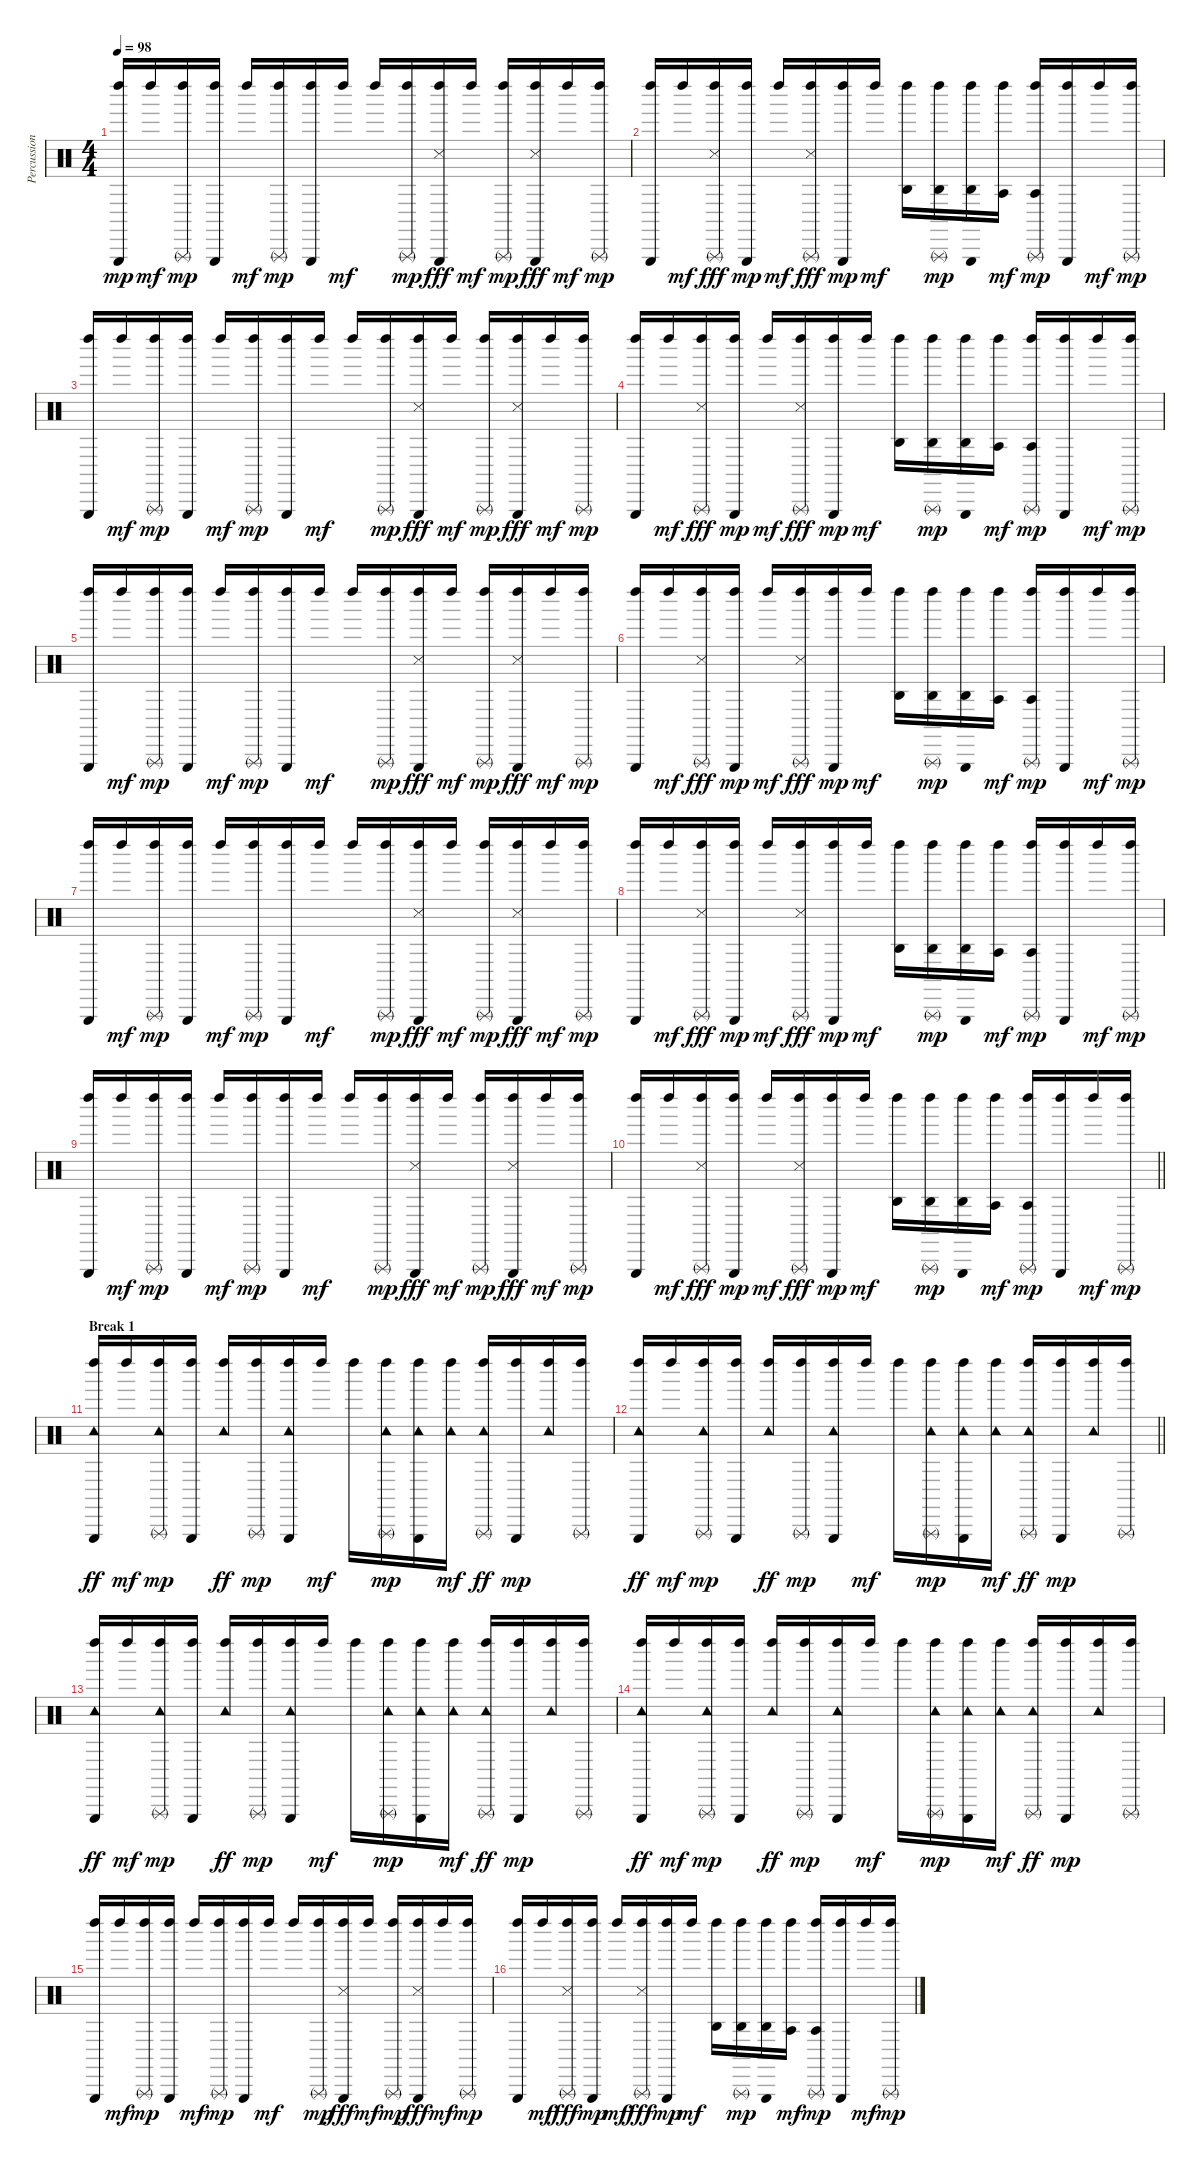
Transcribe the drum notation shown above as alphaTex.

\track ("Percussions (Dr-0)" "Percussion") {instrument percussion}
\staff {score}
\articulation defaults
\ts (4 4)
\tempo 98
\clef neutral
\ks c
("Left Maraca (hit)" "Triangle (hit)").16{dy mp} "Left Maraca (hit)".16{dy mf} ("Left Maraca (hit)" "Triangle (rnute)").16{dy mp} ("Left Maraca (hit)" "Triangle (hit)").16 "Left Maraca (hit)".16{dy mf} ("Left Maraca (hit)" "Triangle (rnute)").16{dy mp} ("Left Maraca (hit)" "Triangle (hit)").16 "Left Maraca (hit)".16{dy mf} "Left Maraca (hit)".16 ("Left Maraca (hit)" "Triangle (rnute)").16{dy mp} ("Left Maraca (hit)" "Triangle (hit)" "Snare (side stick) 3").16{dy fff} "Left Maraca (hit)".16{dy mf} ("Left Maraca (hit)" "Triangle (rnute)").16{dy mp} ("Left Maraca (hit)" "Triangle (hit)" "Snare (side stick) 3").16{dy fff} "Left Maraca (hit)".16{dy mf} ("Left Maraca (hit)" "Triangle (rnute)").16{dy mp} |
("Left Maraca (hit)" "Triangle (hit)").16 "Left Maraca (hit)".16{dy mf} ("Left Maraca (hit)" "Triangle (rnute)" "Snare (side stick) 3").16{dy fff} ("Left Maraca (hit)" "Triangle (hit)").16{dy mp} "Left Maraca (hit)".16{dy mf} ("Left Maraca (hit)" "Triangle (rnute)" "Snare (side stick) 3").16{dy fff} ("Left Maraca (hit)" "Triangle (hit)").16{dy mp} "Left Maraca (hit)".16{dy mf} ("Left Maraca (hit)" "Agogo high (hit)").16 ("Left Maraca (hit)" "Triangle (rnute)" "Agogo high (hit)").16{dy mp} ("Left Maraca (hit)" "Triangle (hit)" "Agogo high (hit)").16 ("Left Maraca (hit)" "Agogo tow (hit)").16{dy mf} ("Left Maraca (hit)" "Triangle (rnute)" "Agogo tow (hit)").16{dy mp} ("Left Maraca (hit)" "Triangle (hit)").16 "Left Maraca (hit)".16{dy mf} ("Left Maraca (hit)" "Triangle (rnute)").16{dy mp} |
("Left Maraca (hit)" "Triangle (hit)").16 "Left Maraca (hit)".16{dy mf} ("Left Maraca (hit)" "Triangle (rnute)").16{dy mp} ("Left Maraca (hit)" "Triangle (hit)").16 "Left Maraca (hit)".16{dy mf} ("Left Maraca (hit)" "Triangle (rnute)").16{dy mp} ("Left Maraca (hit)" "Triangle (hit)").16 "Left Maraca (hit)".16{dy mf} "Left Maraca (hit)".16 ("Left Maraca (hit)" "Triangle (rnute)").16{dy mp} ("Left Maraca (hit)" "Triangle (hit)" "Snare (side stick) 3").16{dy fff} "Left Maraca (hit)".16{dy mf} ("Left Maraca (hit)" "Triangle (rnute)").16{dy mp} ("Left Maraca (hit)" "Triangle (hit)" "Snare (side stick) 3").16{dy fff} "Left Maraca (hit)".16{dy mf} ("Left Maraca (hit)" "Triangle (rnute)").16{dy mp} |
("Left Maraca (hit)" "Triangle (hit)").16 "Left Maraca (hit)".16{dy mf} ("Left Maraca (hit)" "Triangle (rnute)" "Snare (side stick) 3").16{dy fff} ("Left Maraca (hit)" "Triangle (hit)").16{dy mp} "Left Maraca (hit)".16{dy mf} ("Left Maraca (hit)" "Triangle (rnute)" "Snare (side stick) 3").16{dy fff} ("Left Maraca (hit)" "Triangle (hit)").16{dy mp} "Left Maraca (hit)".16{dy mf} ("Left Maraca (hit)" "Agogo high (hit)").16 ("Left Maraca (hit)" "Triangle (rnute)" "Agogo high (hit)").16{dy mp} ("Left Maraca (hit)" "Triangle (hit)" "Agogo high (hit)").16 ("Left Maraca (hit)" "Agogo tow (hit)").16{dy mf} ("Left Maraca (hit)" "Triangle (rnute)" "Agogo tow (hit)").16{dy mp} ("Left Maraca (hit)" "Triangle (hit)").16 "Left Maraca (hit)".16{dy mf} ("Left Maraca (hit)" "Triangle (rnute)").16{dy mp} |
("Left Maraca (hit)" "Triangle (hit)").16 "Left Maraca (hit)".16{dy mf} ("Left Maraca (hit)" "Triangle (rnute)").16{dy mp} ("Left Maraca (hit)" "Triangle (hit)").16 "Left Maraca (hit)".16{dy mf} ("Left Maraca (hit)" "Triangle (rnute)").16{dy mp} ("Left Maraca (hit)" "Triangle (hit)").16 "Left Maraca (hit)".16{dy mf} "Left Maraca (hit)".16 ("Left Maraca (hit)" "Triangle (rnute)").16{dy mp} ("Left Maraca (hit)" "Triangle (hit)" "Snare (side stick) 3").16{dy fff} "Left Maraca (hit)".16{dy mf} ("Left Maraca (hit)" "Triangle (rnute)").16{dy mp} ("Left Maraca (hit)" "Triangle (hit)" "Snare (side stick) 3").16{dy fff} "Left Maraca (hit)".16{dy mf} ("Left Maraca (hit)" "Triangle (rnute)").16{dy mp} |
("Left Maraca (hit)" "Triangle (hit)").16 "Left Maraca (hit)".16{dy mf} ("Left Maraca (hit)" "Triangle (rnute)" "Snare (side stick) 3").16{dy fff} ("Left Maraca (hit)" "Triangle (hit)").16{dy mp} "Left Maraca (hit)".16{dy mf} ("Left Maraca (hit)" "Triangle (rnute)" "Snare (side stick) 3").16{dy fff} ("Left Maraca (hit)" "Triangle (hit)").16{dy mp} "Left Maraca (hit)".16{dy mf} ("Left Maraca (hit)" "Agogo high (hit)").16 ("Left Maraca (hit)" "Triangle (rnute)" "Agogo high (hit)").16{dy mp} ("Left Maraca (hit)" "Triangle (hit)" "Agogo high (hit)").16 ("Left Maraca (hit)" "Agogo tow (hit)").16{dy mf} ("Left Maraca (hit)" "Triangle (rnute)" "Agogo tow (hit)").16{dy mp} ("Left Maraca (hit)" "Triangle (hit)").16 "Left Maraca (hit)".16{dy mf} ("Left Maraca (hit)" "Triangle (rnute)").16{dy mp} |
("Left Maraca (hit)" "Triangle (hit)").16 "Left Maraca (hit)".16{dy mf} ("Left Maraca (hit)" "Triangle (rnute)").16{dy mp} ("Left Maraca (hit)" "Triangle (hit)").16 "Left Maraca (hit)".16{dy mf} ("Left Maraca (hit)" "Triangle (rnute)").16{dy mp} ("Left Maraca (hit)" "Triangle (hit)").16 "Left Maraca (hit)".16{dy mf} "Left Maraca (hit)".16 ("Left Maraca (hit)" "Triangle (rnute)").16{dy mp} ("Left Maraca (hit)" "Triangle (hit)" "Snare (side stick) 3").16{dy fff} "Left Maraca (hit)".16{dy mf} ("Left Maraca (hit)" "Triangle (rnute)").16{dy mp} ("Left Maraca (hit)" "Triangle (hit)" "Snare (side stick) 3").16{dy fff} "Left Maraca (hit)".16{dy mf} ("Left Maraca (hit)" "Triangle (rnute)").16{dy mp} |
("Left Maraca (hit)" "Triangle (hit)").16 "Left Maraca (hit)".16{dy mf} ("Left Maraca (hit)" "Triangle (rnute)" "Snare (side stick) 3").16{dy fff} ("Left Maraca (hit)" "Triangle (hit)").16{dy mp} "Left Maraca (hit)".16{dy mf} ("Left Maraca (hit)" "Triangle (rnute)" "Snare (side stick) 3").16{dy fff} ("Left Maraca (hit)" "Triangle (hit)").16{dy mp} "Left Maraca (hit)".16{dy mf} ("Left Maraca (hit)" "Agogo high (hit)").16 ("Left Maraca (hit)" "Triangle (rnute)" "Agogo high (hit)").16{dy mp} ("Left Maraca (hit)" "Triangle (hit)" "Agogo high (hit)").16 ("Left Maraca (hit)" "Agogo tow (hit)").16{dy mf} ("Left Maraca (hit)" "Triangle (rnute)" "Agogo tow (hit)").16{dy mp} ("Left Maraca (hit)" "Triangle (hit)").16 "Left Maraca (hit)".16{dy mf} ("Left Maraca (hit)" "Triangle (rnute)").16{dy mp} |
("Left Maraca (hit)" "Triangle (hit)").16 "Left Maraca (hit)".16{dy mf} ("Left Maraca (hit)" "Triangle (rnute)").16{dy mp} ("Left Maraca (hit)" "Triangle (hit)").16 "Left Maraca (hit)".16{dy mf} ("Left Maraca (hit)" "Triangle (rnute)").16{dy mp} ("Left Maraca (hit)" "Triangle (hit)").16 "Left Maraca (hit)".16{dy mf} "Left Maraca (hit)".16 ("Left Maraca (hit)" "Triangle (rnute)").16{dy mp} ("Left Maraca (hit)" "Triangle (hit)" "Snare (side stick) 3").16{dy fff} "Left Maraca (hit)".16{dy mf} ("Left Maraca (hit)" "Triangle (rnute)").16{dy mp} ("Left Maraca (hit)" "Triangle (hit)" "Snare (side stick) 3").16{dy fff} "Left Maraca (hit)".16{dy mf} ("Left Maraca (hit)" "Triangle (rnute)").16{dy mp} |
\barLineRight lightlight
("Left Maraca (hit)" "Triangle (hit)").16 "Left Maraca (hit)".16{dy mf} ("Left Maraca (hit)" "Triangle (rnute)" "Snare (side stick) 3").16{dy fff} ("Left Maraca (hit)" "Triangle (hit)").16{dy mp} "Left Maraca (hit)".16{dy mf} ("Left Maraca (hit)" "Triangle (rnute)" "Snare (side stick) 3").16{dy fff} ("Left Maraca (hit)" "Triangle (hit)").16{dy mp} "Left Maraca (hit)".16{dy mf} ("Left Maraca (hit)" "Agogo high (hit)").16 ("Left Maraca (hit)" "Triangle (rnute)" "Agogo high (hit)").16{dy mp} ("Left Maraca (hit)" "Triangle (hit)" "Agogo high (hit)").16 ("Left Maraca (hit)" "Agogo tow (hit)").16{dy mf} ("Left Maraca (hit)" "Triangle (rnute)" "Agogo tow (hit)").16{dy mp} ("Left Maraca (hit)" "Triangle (hit)").16 "Left Maraca (hit)".16{dy mf} ("Left Maraca (hit)" "Triangle (rnute)").16{dy mp} |
\section ("" "Break 1")
("Left Maraca (hit)" "Triangle (hit)" "Tambourine (hit)").16{dy ff} "Left Maraca (hit)".16{dy mf} ("Left Maraca (hit)" "Triangle (rnute)" "Tambourine (hit)").16{dy mp} ("Left Maraca (hit)" "Triangle (hit)").16 ("Left Maraca (hit)" "Tambourine (hit)").16{dy ff} ("Left Maraca (hit)" "Triangle (rnute)").16{dy mp} ("Left Maraca (hit)" "Triangle (hit)" "Tambourine (hit)").16 "Left Maraca (hit)".16{dy mf} "Left Maraca (hit)".16 ("Left Maraca (hit)" "Triangle (rnute)" "Tambourine (hit)").16{dy mp} ("Left Maraca (hit)" "Triangle (hit)" "Tambourine (hit)").16 ("Left Maraca (hit)" "Tambourine (hit)").16{dy mf} ("Left Maraca (hit)" "Triangle (rnute)" "Tambourine (hit)").16{dy ff} ("Left Maraca (hit)" "Triangle (hit)").16{dy mp} ("Left Maraca (hit)" "Tambourine (hit)").16 ("Left Maraca (hit)" "Triangle (rnute)").16 |
\barLineRight lightlight
("Left Maraca (hit)" "Triangle (hit)" "Tambourine (hit)").16{dy ff} "Left Maraca (hit)".16{dy mf} ("Left Maraca (hit)" "Triangle (rnute)" "Tambourine (hit)").16{dy mp} ("Left Maraca (hit)" "Triangle (hit)").16 ("Left Maraca (hit)" "Tambourine (hit)").16{dy ff} ("Left Maraca (hit)" "Triangle (rnute)").16{dy mp} ("Left Maraca (hit)" "Triangle (hit)" "Tambourine (hit)").16 "Left Maraca (hit)".16{dy mf} "Left Maraca (hit)".16 ("Left Maraca (hit)" "Triangle (rnute)" "Tambourine (hit)").16{dy mp} ("Left Maraca (hit)" "Triangle (hit)" "Tambourine (hit)").16 ("Left Maraca (hit)" "Tambourine (hit)").16{dy mf} ("Left Maraca (hit)" "Triangle (rnute)" "Tambourine (hit)").16{dy ff} ("Left Maraca (hit)" "Triangle (hit)").16{dy mp} ("Left Maraca (hit)" "Tambourine (hit)").16 ("Left Maraca (hit)" "Triangle (rnute)").16 |
("Left Maraca (hit)" "Triangle (hit)" "Tambourine (hit)").16{dy ff} "Left Maraca (hit)".16{dy mf} ("Left Maraca (hit)" "Triangle (rnute)" "Tambourine (hit)").16{dy mp} ("Left Maraca (hit)" "Triangle (hit)").16 ("Left Maraca (hit)" "Tambourine (hit)").16{dy ff} ("Left Maraca (hit)" "Triangle (rnute)").16{dy mp} ("Left Maraca (hit)" "Triangle (hit)" "Tambourine (hit)").16 "Left Maraca (hit)".16{dy mf} "Left Maraca (hit)".16 ("Left Maraca (hit)" "Triangle (rnute)" "Tambourine (hit)").16{dy mp} ("Left Maraca (hit)" "Triangle (hit)" "Tambourine (hit)").16 ("Left Maraca (hit)" "Tambourine (hit)").16{dy mf} ("Left Maraca (hit)" "Triangle (rnute)" "Tambourine (hit)").16{dy ff} ("Left Maraca (hit)" "Triangle (hit)").16{dy mp} ("Left Maraca (hit)" "Tambourine (hit)").16 ("Left Maraca (hit)" "Triangle (rnute)").16 |
("Left Maraca (hit)" "Triangle (hit)" "Tambourine (hit)").16{dy ff} "Left Maraca (hit)".16{dy mf} ("Left Maraca (hit)" "Triangle (rnute)" "Tambourine (hit)").16{dy mp} ("Left Maraca (hit)" "Triangle (hit)").16 ("Left Maraca (hit)" "Tambourine (hit)").16{dy ff} ("Left Maraca (hit)" "Triangle (rnute)").16{dy mp} ("Left Maraca (hit)" "Triangle (hit)" "Tambourine (hit)").16 "Left Maraca (hit)".16{dy mf} "Left Maraca (hit)".16 ("Left Maraca (hit)" "Triangle (rnute)" "Tambourine (hit)").16{dy mp} ("Left Maraca (hit)" "Triangle (hit)" "Tambourine (hit)").16 ("Left Maraca (hit)" "Tambourine (hit)").16{dy mf} ("Left Maraca (hit)" "Triangle (rnute)" "Tambourine (hit)").16{dy ff} ("Left Maraca (hit)" "Triangle (hit)").16{dy mp} ("Left Maraca (hit)" "Tambourine (hit)").16 ("Left Maraca (hit)" "Triangle (rnute)").16 |
("Left Maraca (hit)" "Triangle (hit)").16 "Left Maraca (hit)".16{dy mf} ("Left Maraca (hit)" "Triangle (rnute)").16{dy mp} ("Left Maraca (hit)" "Triangle (hit)").16 "Left Maraca (hit)".16{dy mf} ("Left Maraca (hit)" "Triangle (rnute)").16{dy mp} ("Left Maraca (hit)" "Triangle (hit)").16 "Left Maraca (hit)".16{dy mf} "Left Maraca (hit)".16 ("Left Maraca (hit)" "Triangle (rnute)").16{dy mp} ("Left Maraca (hit)" "Triangle (hit)" "Snare (side stick) 3").16{dy fff} "Left Maraca (hit)".16{dy mf} ("Left Maraca (hit)" "Triangle (rnute)").16{dy mp} ("Left Maraca (hit)" "Triangle (hit)" "Snare (side stick) 3").16{dy fff} "Left Maraca (hit)".16{dy mf} ("Left Maraca (hit)" "Triangle (rnute)").16{dy mp} |
("Left Maraca (hit)" "Triangle (hit)").16 "Left Maraca (hit)".16{dy mf} ("Left Maraca (hit)" "Triangle (rnute)" "Snare (side stick) 3").16{dy fff} ("Left Maraca (hit)" "Triangle (hit)").16{dy mp} "Left Maraca (hit)".16{dy mf} ("Left Maraca (hit)" "Triangle (rnute)" "Snare (side stick) 3").16{dy fff} ("Left Maraca (hit)" "Triangle (hit)").16{dy mp} "Left Maraca (hit)".16{dy mf} ("Left Maraca (hit)" "Agogo high (hit)").16 ("Left Maraca (hit)" "Triangle (rnute)" "Agogo high (hit)").16{dy mp} ("Left Maraca (hit)" "Triangle (hit)" "Agogo high (hit)").16 ("Left Maraca (hit)" "Agogo tow (hit)").16{dy mf} ("Left Maraca (hit)" "Triangle (rnute)" "Agogo tow (hit)").16{dy mp} ("Left Maraca (hit)" "Triangle (hit)").16 "Left Maraca (hit)".16{dy mf} ("Left Maraca (hit)" "Triangle (rnute)").16{dy mp}
